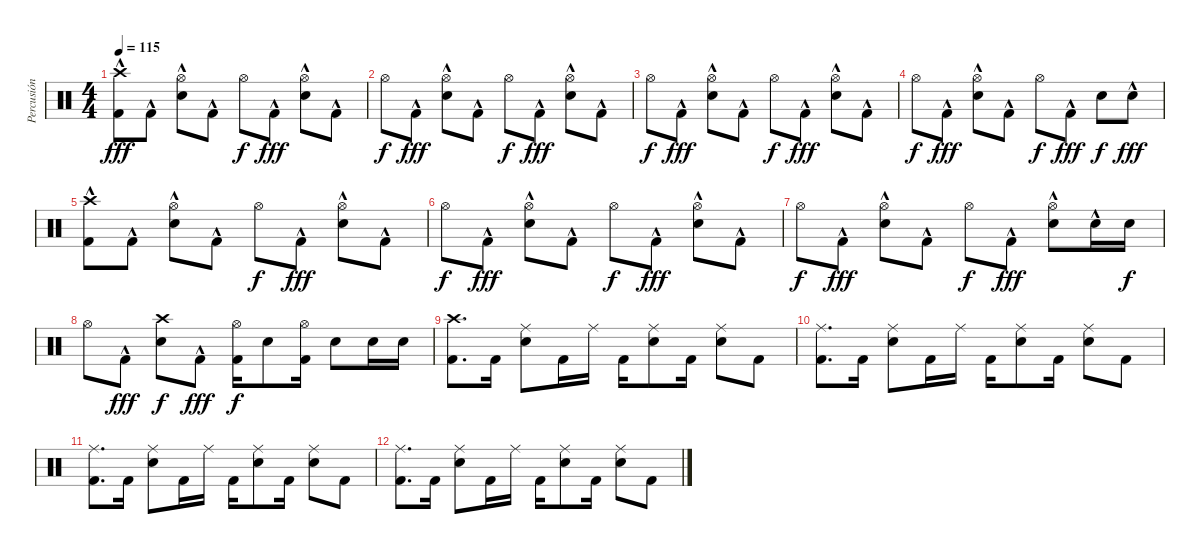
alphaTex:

\track ("Percusión" "Percusión") {instrument percussion}
\staff {score}
\articulation defaults
\ts (4 4)
\tempo 115
\clef neutral
\ks c
("Crash high (hit)" "Kick (hit) 2"{hac}).8{dy fff} "Kick (hit) 2"{hac}.8 ("Hi-Hat (open)"{hac} "Snare (hit) 2").8 "Kick (hit) 2"{hac}.8 "Hi-Hat (open)".8{dy f} "Kick (hit) 2"{hac}.8{dy fff} ("Hi-Hat (open)"{hac} "Snare (hit) 2").8 "Kick (hit) 2"{hac}.8 |
"Hi-Hat (open)".8{dy f} "Kick (hit) 2"{hac}.8{dy fff} ("Hi-Hat (open)"{hac} "Snare (hit) 2").8 "Kick (hit) 2"{hac}.8 "Hi-Hat (open)".8{dy f} "Kick (hit) 2"{hac}.8{dy fff} ("Hi-Hat (open)"{hac} "Snare (hit) 2").8 "Kick (hit) 2"{hac}.8 |
"Hi-Hat (open)".8{dy f} "Kick (hit) 2"{hac}.8{dy fff} ("Hi-Hat (open)"{hac} "Snare (hit) 2").8 "Kick (hit) 2"{hac}.8 "Hi-Hat (open)".8{dy f} "Kick (hit) 2"{hac}.8{dy fff} ("Hi-Hat (open)"{hac} "Snare (hit) 2").8 "Kick (hit) 2"{hac}.8 |
"Hi-Hat (open)".8{dy f} "Kick (hit) 2"{hac}.8{dy fff} ("Hi-Hat (open)"{hac} "Snare (hit) 2").8 "Kick (hit) 2"{hac}.8 "Hi-Hat (open)".8{dy f} "Kick (hit) 2"{hac}.8{dy fff} "Snare (hit) 2".8{dy f} "Snare (hit) 2"{hac}.8{dy fff} |
("Crash high (hit)" "Kick (hit) 2"{hac}).8 "Kick (hit) 2"{hac}.8 ("Hi-Hat (open)"{hac} "Snare (hit) 2").8 "Kick (hit) 2"{hac}.8 "Hi-Hat (open)".8{dy f} "Kick (hit) 2"{hac}.8{dy fff} ("Hi-Hat (open)"{hac} "Snare (hit) 2").8 "Kick (hit) 2"{hac}.8 |
"Hi-Hat (open)".8{dy f} "Kick (hit) 2"{hac}.8{dy fff} ("Hi-Hat (open)"{hac} "Snare (hit) 2").8 "Kick (hit) 2"{hac}.8 "Hi-Hat (open)".8{dy f} "Kick (hit) 2"{hac}.8{dy fff} ("Hi-Hat (open)"{hac} "Snare (hit) 2").8 "Kick (hit) 2"{hac}.8 |
"Hi-Hat (open)".8{dy f} "Kick (hit) 2"{hac}.8{dy fff} ("Hi-Hat (open)"{hac} "Snare (hit) 2").8 "Kick (hit) 2"{hac}.8 "Hi-Hat (open)".8{dy f} "Kick (hit) 2"{hac}.8{dy fff} ("Hi-Hat (open)"{hac} "Snare (hit) 2").8 "Snare (hit) 2"{hac}.16 "Snare (hit) 2".16{dy f} |
"Hi-Hat (open)".8 "Kick (hit) 2"{hac}.8{dy fff} ("Crash high (hit)" "Snare (hit) 2").8{dy f} "Kick (hit) 2"{hac}.8{dy fff} ("Hi-Hat (open)" "Kick (hit) 2").16{dy f} "Snare (hit) 2".8 ("Hi-Hat (open)" "Kick (hit) 2").16 "Snare (hit) 2".8 "Snare (hit) 2".16 "Snare (hit) 2".16 |
("Crash high (hit)" "Kick (hit) 2").8{d} "Kick (hit) 2".16 ("Ride (middle)" "Snare (hit) 2").8 "Kick (hit) 2".16 "Ride (middle)".16 "Kick (hit) 2".16 ("Ride (middle)" "Snare (hit) 2").8 "Kick (hit) 2".16 ("Ride (middle)" "Snare (hit) 2").8 "Kick (hit) 2".8 |
("Ride (middle)" "Kick (hit) 2").8{d} "Kick (hit) 2".16 ("Ride (middle)" "Snare (hit) 2").8 "Kick (hit) 2".16 "Ride (middle)".16 "Kick (hit) 2".16 ("Ride (middle)" "Snare (hit) 2").8 "Kick (hit) 2".16 ("Ride (middle)" "Snare (hit) 2").8 "Kick (hit) 2".8 |
("Ride (middle)" "Kick (hit) 2").8{d} "Kick (hit) 2".16 ("Ride (middle)" "Snare (hit) 2").8 "Kick (hit) 2".16 "Ride (middle)".16 "Kick (hit) 2".16 ("Ride (middle)" "Snare (hit) 2").8 "Kick (hit) 2".16 ("Ride (middle)" "Snare (hit) 2").8 "Kick (hit) 2".8 |
("Ride (middle)" "Kick (hit) 2").8{d} "Kick (hit) 2".16 ("Ride (middle)" "Snare (hit) 2").8 "Kick (hit) 2".16 "Ride (middle)".16 "Kick (hit) 2".16 ("Ride (middle)" "Snare (hit) 2").8 "Kick (hit) 2".16 ("Ride (middle)" "Snare (hit) 2").8 "Kick (hit) 2".8
